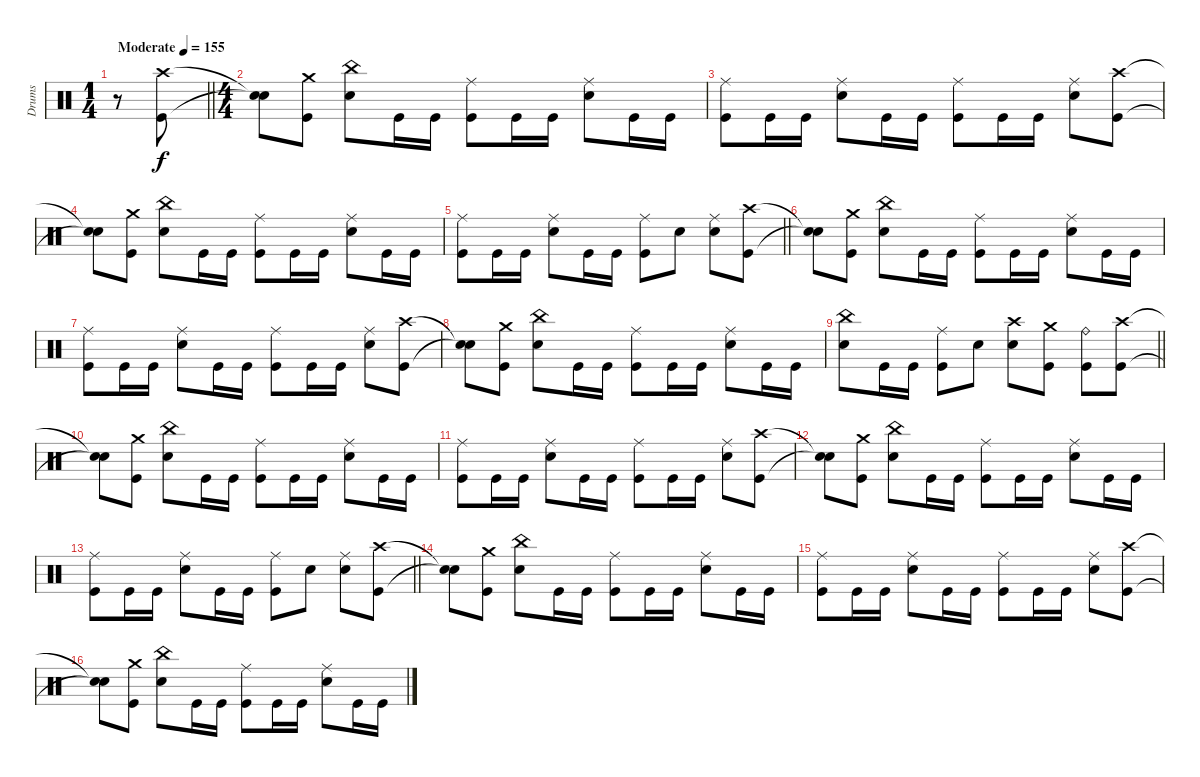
\track ("Drums" "Drums") {instrument percussion}
\staff
\articulation defaults
\ts (1 4)
\tempo (155 "Moderate")
\clef neutral
\barLineRight lightlight
\ks c
r.8{dy f} ("Crash high (hit)" "Kick (hit)").8 |
\ts (4 4)
("Snare (hit)"{t} "Snare (hit)"{t}).8 ("Crash medium (hit)" "Kick (hit)").8 ("China (hit)" "Electric Snare (hit)").8 "Kick (hit)".16 "Kick (hit)".16 ("Ride (middle)" "Kick (hit)").8 "Kick (hit)".16 "Kick (hit)".16 ("Ride (middle)" "Electric Snare (hit)").8 "Kick (hit)".16 "Kick (hit)".16 |
("Ride (middle)" "Kick (hit)").8 "Kick (hit)".16 "Kick (hit)".16 ("Ride (middle)" "Electric Snare (hit)").8 "Kick (hit)".16 "Kick (hit)".16 ("Ride (middle)" "Kick (hit)").8 "Kick (hit)".16 "Kick (hit)".16 ("Ride (middle)" "Electric Snare (hit)").8 ("Crash high (hit)" "Kick (hit)").8 |
("Snare (hit)"{t} "Snare (hit)"{t}).8 ("Crash medium (hit)" "Kick (hit)").8 ("China (hit)" "Electric Snare (hit)").8 "Kick (hit)".16 "Kick (hit)".16 ("Ride (middle)" "Kick (hit)").8 "Kick (hit)".16 "Kick (hit)".16 ("Ride (middle)" "Electric Snare (hit)").8 "Kick (hit)".16 "Kick (hit)".16 |
\barLineRight lightlight
("Ride (middle)" "Kick (hit)").8 "Kick (hit)".16 "Kick (hit)".16 ("Ride (middle)" "Electric Snare (hit)").8 "Kick (hit)".16 "Kick (hit)".16 ("Ride (middle)" "Kick (hit)").8 "Electric Snare (hit)".8 ("Ride (middle)" "Electric Snare (hit)").8 ("Crash high (hit)" "Kick (hit)").8 |
("Snare (hit)"{t} "Snare (hit)"{t}).8 ("Crash medium (hit)" "Kick (hit)").8 ("China (hit)" "Electric Snare (hit)").8 "Kick (hit)".16 "Kick (hit)".16 ("Ride (middle)" "Kick (hit)").8 "Kick (hit)".16 "Kick (hit)".16 ("Ride (middle)" "Electric Snare (hit)").8 "Kick (hit)".16 "Kick (hit)".16 |
("Ride (middle)" "Kick (hit)").8 "Kick (hit)".16 "Kick (hit)".16 ("Ride (middle)" "Electric Snare (hit)").8 "Kick (hit)".16 "Kick (hit)".16 ("Ride (middle)" "Kick (hit)").8 "Kick (hit)".16 "Kick (hit)".16 ("Ride (middle)" "Electric Snare (hit)").8 ("Crash high (hit)" "Kick (hit)").8 |
("Snare (hit)"{t} "Snare (hit)"{t}).8 ("Crash medium (hit)" "Kick (hit)").8 ("China (hit)" "Electric Snare (hit)").8 "Kick (hit)".16 "Kick (hit)".16 ("Ride (middle)" "Kick (hit)").8 "Kick (hit)".16 "Kick (hit)".16 ("Ride (middle)" "Electric Snare (hit)").8 "Kick (hit)".16 "Kick (hit)".16 |
\barLineRight lightlight
("China (hit)" "Electric Snare (hit)").8 "Kick (hit)".16 "Kick (hit)".16 ("Ride (middle)" "Kick (hit)").8 "Electric Snare (hit)".8 ("Crash high (hit)" "Electric Snare (hit)").8 ("Crash medium (hit)" "Kick (hit)").8 ("Ride (bell)" "Kick (hit)").8 ("Crash high (hit)" "Kick (hit)").8 |
("Snare (hit)"{t} "Snare (hit)"{t}).8 ("Crash medium (hit)" "Kick (hit)").8 ("China (hit)" "Electric Snare (hit)").8 "Kick (hit)".16 "Kick (hit)".16 ("Ride (middle)" "Kick (hit)").8 "Kick (hit)".16 "Kick (hit)".16 ("Ride (middle)" "Electric Snare (hit)").8 "Kick (hit)".16 "Kick (hit)".16 |
("Ride (middle)" "Kick (hit)").8 "Kick (hit)".16 "Kick (hit)".16 ("Ride (middle)" "Electric Snare (hit)").8 "Kick (hit)".16 "Kick (hit)".16 ("Ride (middle)" "Kick (hit)").8 "Kick (hit)".16 "Kick (hit)".16 ("Ride (middle)" "Electric Snare (hit)").8 ("Crash high (hit)" "Kick (hit)").8 |
("Snare (hit)"{t} "Snare (hit)"{t}).8 ("Crash medium (hit)" "Kick (hit)").8 ("China (hit)" "Electric Snare (hit)").8 "Kick (hit)".16 "Kick (hit)".16 ("Ride (middle)" "Kick (hit)").8 "Kick (hit)".16 "Kick (hit)".16 ("Ride (middle)" "Electric Snare (hit)").8 "Kick (hit)".16 "Kick (hit)".16 |
\barLineRight lightlight
("Ride (middle)" "Kick (hit)").8 "Kick (hit)".16 "Kick (hit)".16 ("Ride (middle)" "Electric Snare (hit)").8 "Kick (hit)".16 "Kick (hit)".16 ("Ride (middle)" "Kick (hit)").8 "Electric Snare (hit)".8 ("Ride (middle)" "Electric Snare (hit)").8 ("Crash high (hit)" "Kick (hit)").8 |
("Snare (hit)"{t} "Snare (hit)"{t}).8 ("Crash medium (hit)" "Kick (hit)").8 ("China (hit)" "Electric Snare (hit)").8 "Kick (hit)".16 "Kick (hit)".16 ("Ride (middle)" "Kick (hit)").8 "Kick (hit)".16 "Kick (hit)".16 ("Ride (middle)" "Electric Snare (hit)").8 "Kick (hit)".16 "Kick (hit)".16 |
("Ride (middle)" "Kick (hit)").8 "Kick (hit)".16 "Kick (hit)".16 ("Ride (middle)" "Electric Snare (hit)").8 "Kick (hit)".16 "Kick (hit)".16 ("Ride (middle)" "Kick (hit)").8 "Kick (hit)".16 "Kick (hit)".16 ("Ride (middle)" "Electric Snare (hit)").8 ("Crash high (hit)" "Kick (hit)").8 |
("Snare (hit)"{t} "Snare (hit)"{t}).8 ("Crash medium (hit)" "Kick (hit)").8 ("China (hit)" "Electric Snare (hit)").8 "Kick (hit)".16 "Kick (hit)".16 ("Ride (middle)" "Kick (hit)").8 "Kick (hit)".16 "Kick (hit)".16 ("Ride (middle)" "Electric Snare (hit)").8 "Kick (hit)".16 "Kick (hit)".16
